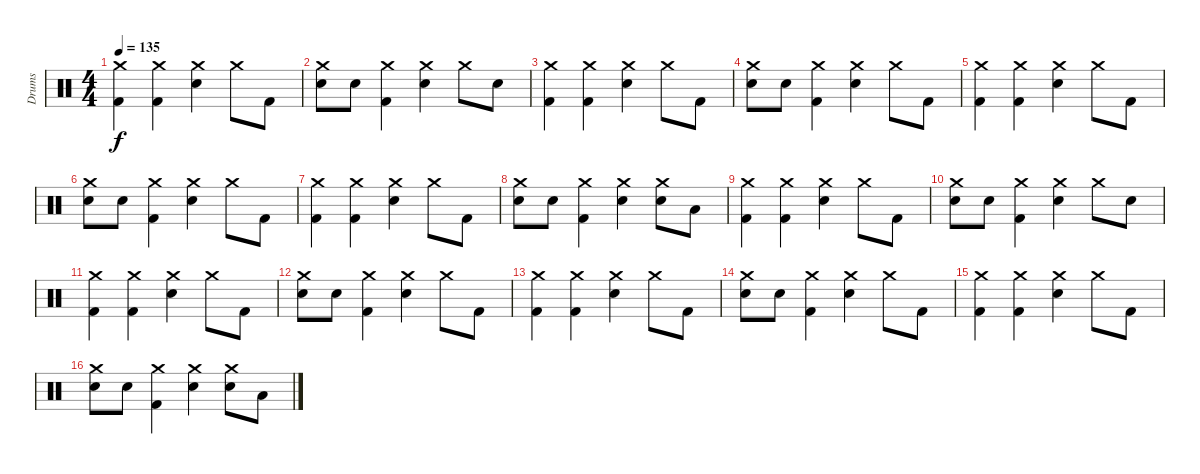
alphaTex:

\track ("Drums" "Drums") {instrument percussion}
\staff {score}
\articulation defaults
\ts (4 4)
\tempo 135
\clef neutral
\ks c
("Crash medium (hit)" "Kick (hit) 2").4{dy f} ("Crash medium (hit)" "Kick (hit) 2").4 ("Crash medium (hit)" "Snare (hit) 2").4 "Crash medium (hit)".8 "Kick (hit) 2".8 |
("Crash medium (hit)" "Snare (hit) 2").8 "Snare (hit) 2".8 ("Crash medium (hit)" "Kick (hit) 2").4 ("Crash medium (hit)" "Snare (hit) 2").4 "Crash medium (hit)".8 "Snare (hit) 2".8 |
("Crash medium (hit)" "Kick (hit) 2").4 ("Crash medium (hit)" "Kick (hit) 2").4 ("Crash medium (hit)" "Snare (hit) 2").4 "Crash medium (hit)".8 "Kick (hit) 2".8 |
("Crash medium (hit)" "Snare (hit) 2").8 "Snare (hit) 2".8 ("Crash medium (hit)" "Kick (hit) 2").4 ("Crash medium (hit)" "Snare (hit) 2").4 "Crash medium (hit)".8 "Kick (hit) 2".8 |
("Crash medium (hit)" "Kick (hit) 2").4 ("Crash medium (hit)" "Kick (hit) 2").4 ("Crash medium (hit)" "Snare (hit) 2").4 "Crash medium (hit)".8 "Kick (hit) 2".8 |
("Crash medium (hit)" "Snare (hit) 2").8 "Snare (hit) 2".8 ("Crash medium (hit)" "Kick (hit) 2").4 ("Crash medium (hit)" "Snare (hit) 2").4 "Crash medium (hit)".8 "Kick (hit) 2".8 |
("Crash medium (hit)" "Kick (hit) 2").4 ("Crash medium (hit)" "Kick (hit) 2").4 ("Crash medium (hit)" "Snare (hit) 2").4 "Crash medium (hit)".8 "Kick (hit) 2".8 |
("Crash medium (hit)" "Snare (hit) 2").8 "Snare (hit) 2".8 ("Crash medium (hit)" "Kick (hit) 2").4 ("Crash medium (hit)" "Snare (hit) 2").4 ("Crash medium (hit)" "Snare (hit) 2").8 "Low Tom (hit)".8 |
("Crash medium (hit)" "Kick (hit) 2").4 ("Crash medium (hit)" "Kick (hit) 2").4 ("Crash medium (hit)" "Snare (hit) 2").4 "Crash medium (hit)".8 "Kick (hit) 2".8 |
("Crash medium (hit)" "Snare (hit) 2").8 "Snare (hit) 2".8 ("Crash medium (hit)" "Kick (hit) 2").4 ("Crash medium (hit)" "Snare (hit) 2").4 "Crash medium (hit)".8 "Snare (hit) 2".8 |
("Crash medium (hit)" "Kick (hit) 2").4 ("Crash medium (hit)" "Kick (hit) 2").4 ("Crash medium (hit)" "Snare (hit) 2").4 "Crash medium (hit)".8 "Kick (hit) 2".8 |
("Crash medium (hit)" "Snare (hit) 2").8 "Snare (hit) 2".8 ("Crash medium (hit)" "Kick (hit) 2").4 ("Crash medium (hit)" "Snare (hit) 2").4 "Crash medium (hit)".8 "Kick (hit) 2".8 |
("Crash medium (hit)" "Kick (hit) 2").4 ("Crash medium (hit)" "Kick (hit) 2").4 ("Crash medium (hit)" "Snare (hit) 2").4 "Crash medium (hit)".8 "Kick (hit) 2".8 |
("Crash medium (hit)" "Snare (hit) 2").8 "Snare (hit) 2".8 ("Crash medium (hit)" "Kick (hit) 2").4 ("Crash medium (hit)" "Snare (hit) 2").4 "Crash medium (hit)".8 "Kick (hit) 2".8 |
("Crash medium (hit)" "Kick (hit) 2").4 ("Crash medium (hit)" "Kick (hit) 2").4 ("Crash medium (hit)" "Snare (hit) 2").4 "Crash medium (hit)".8 "Kick (hit) 2".8 |
("Crash medium (hit)" "Snare (hit) 2").8 "Snare (hit) 2".8 ("Crash medium (hit)" "Kick (hit) 2").4 ("Crash medium (hit)" "Snare (hit) 2").4 ("Crash medium (hit)" "Snare (hit) 2").8 "Low Tom (hit)".8
